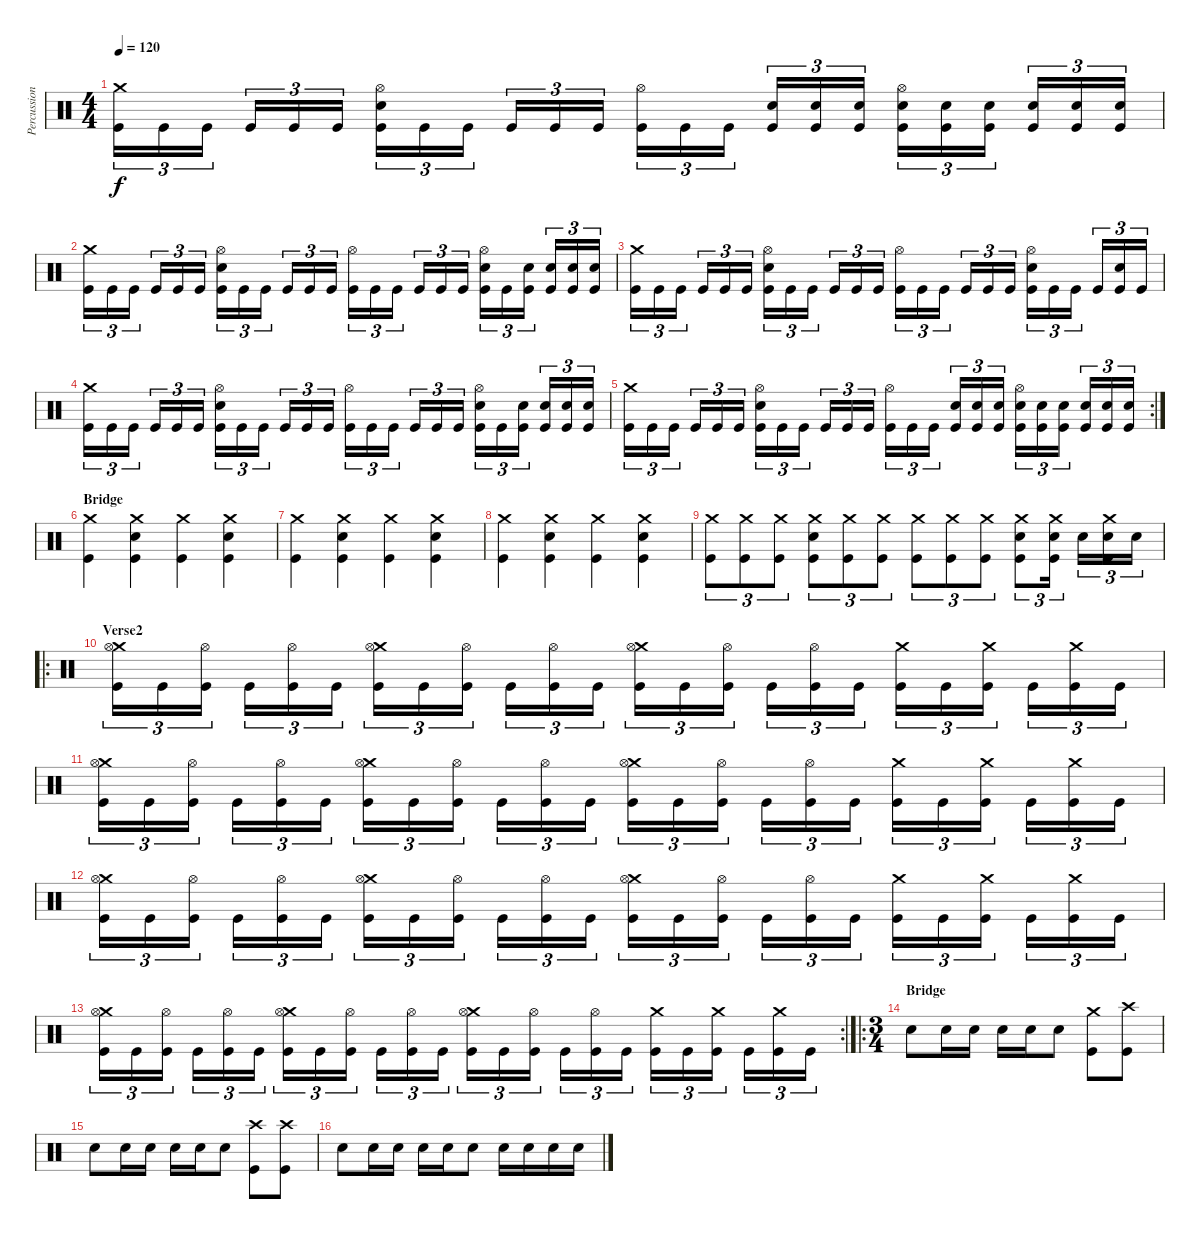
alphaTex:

\track ("Percussion" "Percussion") {instrument percussion}
\staff {score}
\articulation defaults
\ts (4 4)
\tempo 120
\clef neutral
\ks c
("Crash medium (hit)" "Kick (hit)").16{tu (3 2) dy f} "Kick (hit)".16{tu (3 2)} "Kick (hit)".16{tu (3 2)} "Kick (hit)".16{tu (3 2)} "Kick (hit)".16{tu (3 2)} "Kick (hit)".16{tu (3 2)} ("Snare (hit) 2" "Hi-Hat (open)" "Kick (hit)").16{tu (3 2)} "Kick (hit)".16{tu (3 2)} "Kick (hit)".16{tu (3 2)} "Kick (hit)".16{tu (3 2)} "Kick (hit)".16{tu (3 2)} "Kick (hit)".16{tu (3 2)} ("Hi-Hat (open)" "Kick (hit)").16{tu (3 2)} "Kick (hit)".16{tu (3 2)} "Kick (hit)".16{tu (3 2)} ("Snare (hit) 2" "Kick (hit)").16{tu (3 2)} ("Snare (hit) 2" "Kick (hit)").16{tu (3 2)} ("Snare (hit) 2" "Kick (hit)").16{tu (3 2)} ("Snare (hit) 2" "Hi-Hat (open)" "Kick (hit)").16{tu (3 2)} ("Snare (hit) 2" "Kick (hit)").16{tu (3 2)} ("Snare (hit) 2" "Kick (hit)").16{tu (3 2)} ("Snare (hit) 2" "Kick (hit)").16{tu (3 2)} ("Snare (hit) 2" "Kick (hit)").16{tu (3 2)} ("Snare (hit) 2" "Kick (hit)").16{tu (3 2)} |
("Crash medium (hit)" "Kick (hit)").16{tu (3 2)} "Kick (hit)".16{tu (3 2)} "Kick (hit)".16{tu (3 2)} "Kick (hit)".16{tu (3 2)} "Kick (hit)".16{tu (3 2)} "Kick (hit)".16{tu (3 2)} ("Snare (hit) 2" "Hi-Hat (open)" "Kick (hit)").16{tu (3 2)} "Kick (hit)".16{tu (3 2)} "Kick (hit)".16{tu (3 2)} "Kick (hit)".16{tu (3 2)} "Kick (hit)".16{tu (3 2)} "Kick (hit)".16{tu (3 2)} ("Hi-Hat (open)" "Kick (hit)").16{tu (3 2)} "Kick (hit)".16{tu (3 2)} "Kick (hit)".16{tu (3 2)} "Kick (hit)".16{tu (3 2)} "Kick (hit)".16{tu (3 2)} "Kick (hit)".16{tu (3 2)} ("Snare (hit) 2" "Hi-Hat (open)" "Kick (hit)").16{tu (3 2)} "Kick (hit)".16{tu (3 2)} ("Snare (hit) 2" "Kick (hit)").16{tu (3 2)} ("Snare (hit) 2" "Kick (hit)").16{tu (3 2)} ("Snare (hit) 2" "Kick (hit)").16{tu (3 2)} ("Snare (hit) 2" "Kick (hit)").16{tu (3 2)} |
("Crash medium (hit)" "Kick (hit)").16{tu (3 2)} "Kick (hit)".16{tu (3 2)} "Kick (hit)".16{tu (3 2)} "Kick (hit)".16{tu (3 2)} "Kick (hit)".16{tu (3 2)} "Kick (hit)".16{tu (3 2)} ("Snare (hit) 2" "Hi-Hat (open)" "Kick (hit)").16{tu (3 2)} "Kick (hit)".16{tu (3 2)} "Kick (hit)".16{tu (3 2)} "Kick (hit)".16{tu (3 2)} "Kick (hit)".16{tu (3 2)} "Kick (hit)".16{tu (3 2)} ("Hi-Hat (open)" "Kick (hit)").16{tu (3 2)} "Kick (hit)".16{tu (3 2)} "Kick (hit)".16{tu (3 2)} "Kick (hit)".16{tu (3 2)} "Kick (hit)".16{tu (3 2)} "Kick (hit)".16{tu (3 2)} ("Snare (hit) 2" "Hi-Hat (open)" "Kick (hit)").16{tu (3 2)} "Kick (hit)".16{tu (3 2)} "Kick (hit)".16{tu (3 2)} "Kick (hit)".16{tu (3 2)} ("Snare (hit) 2" "Kick (hit)").16{tu (3 2)} "Kick (hit)".16{tu (3 2)} |
("Crash medium (hit)" "Kick (hit)").16{tu (3 2)} "Kick (hit)".16{tu (3 2)} "Kick (hit)".16{tu (3 2)} "Kick (hit)".16{tu (3 2)} "Kick (hit)".16{tu (3 2)} "Kick (hit)".16{tu (3 2)} ("Snare (hit) 2" "Hi-Hat (open)" "Kick (hit)").16{tu (3 2)} "Kick (hit)".16{tu (3 2)} "Kick (hit)".16{tu (3 2)} "Kick (hit)".16{tu (3 2)} "Kick (hit)".16{tu (3 2)} "Kick (hit)".16{tu (3 2)} ("Hi-Hat (open)" "Kick (hit)").16{tu (3 2)} "Kick (hit)".16{tu (3 2)} "Kick (hit)".16{tu (3 2)} "Kick (hit)".16{tu (3 2)} "Kick (hit)".16{tu (3 2)} "Kick (hit)".16{tu (3 2)} ("Snare (hit) 2" "Hi-Hat (open)" "Kick (hit)").16{tu (3 2)} "Kick (hit)".16{tu (3 2)} ("Snare (hit) 2" "Kick (hit)").16{tu (3 2)} ("Snare (hit) 2" "Kick (hit)").16{tu (3 2)} ("Snare (hit) 2" "Kick (hit)").16{tu (3 2)} ("Snare (hit) 2" "Kick (hit)").16{tu (3 2)} |
\rc 2
("Crash medium (hit)" "Kick (hit)").16{tu (3 2)} "Kick (hit)".16{tu (3 2)} "Kick (hit)".16{tu (3 2)} "Kick (hit)".16{tu (3 2)} "Kick (hit)".16{tu (3 2)} "Kick (hit)".16{tu (3 2)} ("Snare (hit) 2" "Hi-Hat (open)" "Kick (hit)").16{tu (3 2)} "Kick (hit)".16{tu (3 2)} "Kick (hit)".16{tu (3 2)} "Kick (hit)".16{tu (3 2)} "Kick (hit)".16{tu (3 2)} "Kick (hit)".16{tu (3 2)} ("Hi-Hat (open)" "Kick (hit)").16{tu (3 2)} "Kick (hit)".16{tu (3 2)} "Kick (hit)".16{tu (3 2)} ("Snare (hit) 2" "Kick (hit)").16{tu (3 2)} ("Snare (hit) 2" "Kick (hit)").16{tu (3 2)} ("Snare (hit) 2" "Kick (hit)").16{tu (3 2)} ("Snare (hit) 2" "Hi-Hat (open)" "Kick (hit)").16{tu (3 2)} ("Snare (hit) 2" "Kick (hit)").16{tu (3 2)} ("Snare (hit) 2" "Kick (hit)").16{tu (3 2)} ("Snare (hit) 2" "Kick (hit)").16{tu (3 2)} ("Snare (hit) 2" "Kick (hit)").16{tu (3 2)} ("Snare (hit) 2" "Kick (hit)").16{tu (3 2)} |
\section ("" "Bridge")
("Crash medium (hit)" "Kick (hit)").4 ("Crash medium (hit)" "Snare (hit) 2" "Kick (hit)").4 ("Crash medium (hit)" "Kick (hit)").4 ("Crash medium (hit)" "Snare (hit) 2" "Kick (hit)").4 |
("Crash medium (hit)" "Kick (hit)").4 ("Crash medium (hit)" "Snare (hit) 2" "Kick (hit)").4 ("Crash medium (hit)" "Kick (hit)").4 ("Crash medium (hit)" "Snare (hit) 2" "Kick (hit)").4 |
("Crash medium (hit)" "Kick (hit)").4 ("Crash medium (hit)" "Snare (hit) 2" "Kick (hit)").4 ("Crash medium (hit)" "Kick (hit)").4 ("Crash medium (hit)" "Snare (hit) 2" "Kick (hit)").4 |
("Crash medium (hit)" "Kick (hit)").8{tu (3 2)} ("Crash medium (hit)" "Kick (hit)").8{tu (3 2)} ("Crash medium (hit)" "Kick (hit)").8{tu (3 2)} ("Crash medium (hit)" "Snare (hit) 2" "Kick (hit)").8{tu (3 2)} ("Crash medium (hit)" "Kick (hit)").8{tu (3 2)} ("Crash medium (hit)" "Kick (hit)").8{tu (3 2)} ("Crash medium (hit)" "Kick (hit)").8{tu (3 2)} ("Crash medium (hit)" "Kick (hit)").8{tu (3 2)} ("Crash medium (hit)" "Kick (hit)").8{tu (3 2)} ("Crash medium (hit)" "Snare (hit) 2" "Kick (hit)").8{tu (3 2)} ("Crash medium (hit)" "Snare (hit) 2" "Kick (hit)").16{tu (3 2)} "Snare (hit) 2".16{tu (3 2)} ("Crash medium (hit)" "Snare (hit) 2" "Kick (hit)").16{tu (3 2)} "Snare (hit) 2".16{tu (3 2)} |
\ro
\section ("" "Verse2")
("Crash medium (hit)" "Hi-Hat (open)" "Kick (hit)").16{tu (3 2)} "Kick (hit)".16{tu (3 2)} ("Hi-Hat (open)" "Kick (hit)").16{tu (3 2)} "Kick (hit)".16{tu (3 2)} ("Hi-Hat (open)" "Kick (hit)").16{tu (3 2)} "Kick (hit)".16{tu (3 2)} ("Crash medium (hit)" "Hi-Hat (open)" "Kick (hit)").16{tu (3 2)} "Kick (hit)".16{tu (3 2)} ("Hi-Hat (open)" "Kick (hit)").16{tu (3 2)} "Kick (hit)".16{tu (3 2)} ("Hi-Hat (open)" "Kick (hit)").16{tu (3 2)} "Kick (hit)".16{tu (3 2)} ("Crash medium (hit)" "Hi-Hat (open)" "Kick (hit)").16{tu (3 2)} "Kick (hit)".16{tu (3 2)} ("Hi-Hat (open)" "Kick (hit)").16{tu (3 2)} "Kick (hit)".16{tu (3 2)} ("Hi-Hat (open)" "Kick (hit)").16{tu (3 2)} "Kick (hit)".16{tu (3 2)} ("Crash medium (hit)" "Kick (hit)").16{tu (3 2)} "Kick (hit)".16{tu (3 2)} ("Crash medium (hit)" "Kick (hit)").16{tu (3 2)} "Kick (hit)".16{tu (3 2)} ("Crash medium (hit)" "Kick (hit)").16{tu (3 2)} "Kick (hit)".16{tu (3 2)} |
("Crash medium (hit)" "Hi-Hat (open)" "Kick (hit)").16{tu (3 2)} "Kick (hit)".16{tu (3 2)} ("Hi-Hat (open)" "Kick (hit)").16{tu (3 2)} "Kick (hit)".16{tu (3 2)} ("Hi-Hat (open)" "Kick (hit)").16{tu (3 2)} "Kick (hit)".16{tu (3 2)} ("Crash medium (hit)" "Hi-Hat (open)" "Kick (hit)").16{tu (3 2)} "Kick (hit)".16{tu (3 2)} ("Hi-Hat (open)" "Kick (hit)").16{tu (3 2)} "Kick (hit)".16{tu (3 2)} ("Hi-Hat (open)" "Kick (hit)").16{tu (3 2)} "Kick (hit)".16{tu (3 2)} ("Crash medium (hit)" "Hi-Hat (open)" "Kick (hit)").16{tu (3 2)} "Kick (hit)".16{tu (3 2)} ("Hi-Hat (open)" "Kick (hit)").16{tu (3 2)} "Kick (hit)".16{tu (3 2)} ("Hi-Hat (open)" "Kick (hit)").16{tu (3 2)} "Kick (hit)".16{tu (3 2)} ("Crash medium (hit)" "Kick (hit)").16{tu (3 2)} "Kick (hit)".16{tu (3 2)} ("Crash medium (hit)" "Kick (hit)").16{tu (3 2)} "Kick (hit)".16{tu (3 2)} ("Crash medium (hit)" "Kick (hit)").16{tu (3 2)} "Kick (hit)".16{tu (3 2)} |
("Crash medium (hit)" "Hi-Hat (open)" "Kick (hit)").16{tu (3 2)} "Kick (hit)".16{tu (3 2)} ("Hi-Hat (open)" "Kick (hit)").16{tu (3 2)} "Kick (hit)".16{tu (3 2)} ("Hi-Hat (open)" "Kick (hit)").16{tu (3 2)} "Kick (hit)".16{tu (3 2)} ("Crash medium (hit)" "Hi-Hat (open)" "Kick (hit)").16{tu (3 2)} "Kick (hit)".16{tu (3 2)} ("Hi-Hat (open)" "Kick (hit)").16{tu (3 2)} "Kick (hit)".16{tu (3 2)} ("Hi-Hat (open)" "Kick (hit)").16{tu (3 2)} "Kick (hit)".16{tu (3 2)} ("Crash medium (hit)" "Hi-Hat (open)" "Kick (hit)").16{tu (3 2)} "Kick (hit)".16{tu (3 2)} ("Hi-Hat (open)" "Kick (hit)").16{tu (3 2)} "Kick (hit)".16{tu (3 2)} ("Hi-Hat (open)" "Kick (hit)").16{tu (3 2)} "Kick (hit)".16{tu (3 2)} ("Crash medium (hit)" "Kick (hit)").16{tu (3 2)} "Kick (hit)".16{tu (3 2)} ("Crash medium (hit)" "Kick (hit)").16{tu (3 2)} "Kick (hit)".16{tu (3 2)} ("Crash medium (hit)" "Kick (hit)").16{tu (3 2)} "Kick (hit)".16{tu (3 2)} |
\rc 2
("Crash medium (hit)" "Hi-Hat (open)" "Kick (hit)").16{tu (3 2)} "Kick (hit)".16{tu (3 2)} ("Hi-Hat (open)" "Kick (hit)").16{tu (3 2)} "Kick (hit)".16{tu (3 2)} ("Hi-Hat (open)" "Kick (hit)").16{tu (3 2)} "Kick (hit)".16{tu (3 2)} ("Crash medium (hit)" "Hi-Hat (open)" "Kick (hit)").16{tu (3 2)} "Kick (hit)".16{tu (3 2)} ("Hi-Hat (open)" "Kick (hit)").16{tu (3 2)} "Kick (hit)".16{tu (3 2)} ("Hi-Hat (open)" "Kick (hit)").16{tu (3 2)} "Kick (hit)".16{tu (3 2)} ("Crash medium (hit)" "Hi-Hat (open)" "Kick (hit)").16{tu (3 2)} "Kick (hit)".16{tu (3 2)} ("Hi-Hat (open)" "Kick (hit)").16{tu (3 2)} "Kick (hit)".16{tu (3 2)} ("Hi-Hat (open)" "Kick (hit)").16{tu (3 2)} "Kick (hit)".16{tu (3 2)} ("Crash medium (hit)" "Kick (hit)").16{tu (3 2)} "Kick (hit)".16{tu (3 2)} ("Crash medium (hit)" "Kick (hit)").16{tu (3 2)} "Kick (hit)".16{tu (3 2)} ("Crash medium (hit)" "Kick (hit)").16{tu (3 2)} "Kick (hit)".16{tu (3 2)} |
\ro
\ts (3 4)
\section ("" "Bridge")
"Snare (hit) 2".8 "Snare (hit) 2".16 "Snare (hit) 2".16 "Snare (hit) 2".16 "Snare (hit) 2".16 "Snare (hit) 2".8 ("Crash medium (hit)" "Kick (hit)").8 ("Crash high (hit)" "Kick (hit)").8 |
"Snare (hit) 2".8 "Snare (hit) 2".16 "Snare (hit) 2".16 "Snare (hit) 2".16 "Snare (hit) 2".16 "Snare (hit) 2".8 ("Crash high (hit)" "Kick (hit)").8 ("Crash high (hit)" "Kick (hit)").8 |
"Snare (hit) 2".8 "Snare (hit) 2".16 "Snare (hit) 2".16 "Snare (hit) 2".16 "Snare (hit) 2".16 "Snare (hit) 2".8 "Snare (hit) 2".16 "Snare (hit) 2".16 "Snare (hit) 2".16 "Snare (hit) 2".16
